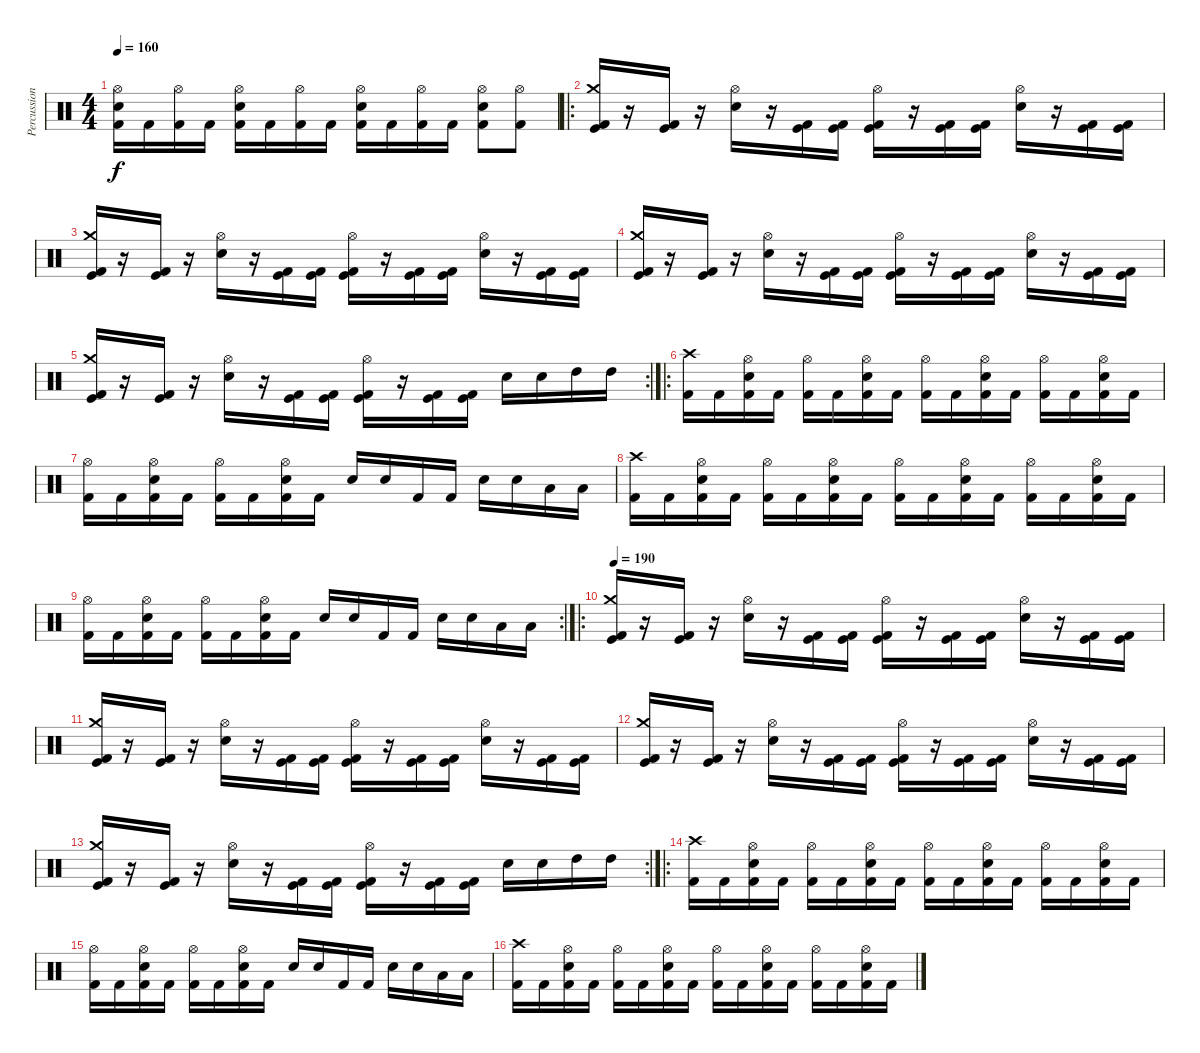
\track ("Percussion" "Percussion") {instrument percussion}
\staff {score}
\articulation defaults
\ts (4 4)
\tempo 160
\clef neutral
\ks c
("Hi-Hat (open)" "Snare (hit) 2" "Kick (hit) 2").16{dy f} "Kick (hit) 2".16 ("Hi-Hat (open)" "Kick (hit) 2").16 "Kick (hit) 2".16 ("Hi-Hat (open)" "Snare (hit) 2" "Kick (hit) 2").16 "Kick (hit) 2".16 ("Hi-Hat (open)" "Kick (hit) 2").16 "Kick (hit) 2".16 ("Hi-Hat (open)" "Snare (hit) 2" "Kick (hit) 2").16 "Kick (hit) 2".16 ("Hi-Hat (open)" "Kick (hit) 2").16 "Kick (hit) 2".16 ("Hi-Hat (open)" "Snare (hit) 2" "Kick (hit) 2").8 ("Hi-Hat (open)" "Kick (hit) 2").8 |
\ro
("Crash medium (hit)" "Kick (hit)" "Kick (hit) 2").16 r.16 ("Kick (hit)" "Kick (hit) 2").16 r.16 ("Hi-Hat (open)" "Electric Snare (hit)").16 r.16 ("Kick (hit)" "Kick (hit) 2").16 ("Kick (hit)" "Kick (hit) 2").16 ("Hi-Hat (open)" "Kick (hit)" "Kick (hit) 2").16 r.16 ("Kick (hit)" "Kick (hit) 2").16 ("Kick (hit)" "Kick (hit) 2").16 ("Hi-Hat (open)" "Electric Snare (hit)").16 r.16 ("Kick (hit)" "Kick (hit) 2").16 ("Kick (hit)" "Kick (hit) 2").16 |
("Crash medium (hit)" "Kick (hit)" "Kick (hit) 2").16 r.16 ("Kick (hit)" "Kick (hit) 2").16 r.16 ("Hi-Hat (open)" "Electric Snare (hit)").16 r.16 ("Kick (hit)" "Kick (hit) 2").16 ("Kick (hit)" "Kick (hit) 2").16 ("Hi-Hat (open)" "Kick (hit)" "Kick (hit) 2").16 r.16 ("Kick (hit)" "Kick (hit) 2").16 ("Kick (hit)" "Kick (hit) 2").16 ("Hi-Hat (open)" "Electric Snare (hit)").16 r.16 ("Kick (hit)" "Kick (hit) 2").16 ("Kick (hit)" "Kick (hit) 2").16 |
("Crash medium (hit)" "Kick (hit)" "Kick (hit) 2").16 r.16 ("Kick (hit)" "Kick (hit) 2").16 r.16 ("Hi-Hat (open)" "Electric Snare (hit)").16 r.16 ("Kick (hit)" "Kick (hit) 2").16 ("Kick (hit)" "Kick (hit) 2").16 ("Hi-Hat (open)" "Kick (hit)" "Kick (hit) 2").16 r.16 ("Kick (hit)" "Kick (hit) 2").16 ("Kick (hit)" "Kick (hit) 2").16 ("Hi-Hat (open)" "Electric Snare (hit)").16 r.16 ("Kick (hit)" "Kick (hit) 2").16 ("Kick (hit)" "Kick (hit) 2").16 |
\rc 2
("Crash medium (hit)" "Kick (hit)" "Kick (hit) 2").16 r.16 ("Kick (hit)" "Kick (hit) 2").16 r.16 ("Hi-Hat (open)" "Electric Snare (hit)").16 r.16 ("Kick (hit)" "Kick (hit) 2").16 ("Kick (hit)" "Kick (hit) 2").16 ("Hi-Hat (open)" "Kick (hit)" "Kick (hit) 2").16 r.16 ("Kick (hit)" "Kick (hit) 2").16 ("Kick (hit)" "Kick (hit) 2").16 "Snare (hit) 2".16 "Snare (hit) 2".16 "High Tom (hit)".16 "High Tom (hit)".16 |
\ro
("Crash high (hit)" "Kick (hit) 2").16 "Kick (hit) 2".16 ("Hi-Hat (open)" "Snare (hit) 2" "Kick (hit) 2").16 "Kick (hit) 2".16 ("Hi-Hat (open)" "Kick (hit) 2").16 "Kick (hit) 2".16 ("Hi-Hat (open)" "Snare (hit) 2" "Kick (hit) 2").16 "Kick (hit) 2".16 ("Hi-Hat (open)" "Kick (hit) 2").16 "Kick (hit) 2".16 ("Hi-Hat (open)" "Snare (hit) 2" "Kick (hit) 2").16 "Kick (hit) 2".16 ("Hi-Hat (open)" "Kick (hit) 2").16 "Kick (hit) 2".16 ("Hi-Hat (open)" "Snare (hit) 2" "Kick (hit) 2").16 "Kick (hit) 2".16 |
("Hi-Hat (open)" "Kick (hit) 2").16 "Kick (hit) 2".16 ("Hi-Hat (open)" "Snare (hit) 2" "Kick (hit) 2").16 "Kick (hit) 2".16 ("Hi-Hat (open)" "Kick (hit) 2").16 "Kick (hit) 2".16 ("Hi-Hat (open)" "Snare (hit) 2" "Kick (hit) 2").16 "Kick (hit) 2".16 "Snare (hit) 2".16 "Snare (hit) 2".16 "Kick (hit) 2".16 "Kick (hit) 2".16 "Snare (hit) 2".16 "Snare (hit) 2".16 "Low Tom (hit)".16 "Low Tom (hit)".16 |
("Crash high (hit)" "Kick (hit) 2").16 "Kick (hit) 2".16 ("Hi-Hat (open)" "Snare (hit) 2" "Kick (hit) 2").16 "Kick (hit) 2".16 ("Hi-Hat (open)" "Kick (hit) 2").16 "Kick (hit) 2".16 ("Hi-Hat (open)" "Snare (hit) 2" "Kick (hit) 2").16 "Kick (hit) 2".16 ("Hi-Hat (open)" "Kick (hit) 2").16 "Kick (hit) 2".16 ("Hi-Hat (open)" "Snare (hit) 2" "Kick (hit) 2").16 "Kick (hit) 2".16 ("Hi-Hat (open)" "Kick (hit) 2").16 "Kick (hit) 2".16 ("Hi-Hat (open)" "Snare (hit) 2" "Kick (hit) 2").16 "Kick (hit) 2".16 |
\rc 2
("Hi-Hat (open)" "Kick (hit) 2").16 "Kick (hit) 2".16 ("Hi-Hat (open)" "Snare (hit) 2" "Kick (hit) 2").16 "Kick (hit) 2".16 ("Hi-Hat (open)" "Kick (hit) 2").16 "Kick (hit) 2".16 ("Hi-Hat (open)" "Snare (hit) 2" "Kick (hit) 2").16 "Kick (hit) 2".16 "Snare (hit) 2".16 "Snare (hit) 2".16 "Kick (hit) 2".16 "Kick (hit) 2".16 "Snare (hit) 2".16 "Snare (hit) 2".16 "Low Tom (hit)".16 "Low Tom (hit)".16 |
\ro
\tempo 190
("Crash medium (hit)" "Kick (hit)" "Kick (hit) 2").16 r.16 ("Kick (hit)" "Kick (hit) 2").16 r.16 ("Hi-Hat (open)" "Electric Snare (hit)").16 r.16 ("Kick (hit)" "Kick (hit) 2").16 ("Kick (hit)" "Kick (hit) 2").16 ("Hi-Hat (open)" "Kick (hit)" "Kick (hit) 2").16 r.16 ("Kick (hit)" "Kick (hit) 2").16 ("Kick (hit)" "Kick (hit) 2").16 ("Hi-Hat (open)" "Electric Snare (hit)").16 r.16 ("Kick (hit)" "Kick (hit) 2").16 ("Kick (hit)" "Kick (hit) 2").16 |
("Crash medium (hit)" "Kick (hit)" "Kick (hit) 2").16 r.16 ("Kick (hit)" "Kick (hit) 2").16 r.16 ("Hi-Hat (open)" "Electric Snare (hit)").16 r.16 ("Kick (hit)" "Kick (hit) 2").16 ("Kick (hit)" "Kick (hit) 2").16 ("Hi-Hat (open)" "Kick (hit)" "Kick (hit) 2").16 r.16 ("Kick (hit)" "Kick (hit) 2").16 ("Kick (hit)" "Kick (hit) 2").16 ("Hi-Hat (open)" "Electric Snare (hit)").16 r.16 ("Kick (hit)" "Kick (hit) 2").16 ("Kick (hit)" "Kick (hit) 2").16 |
("Crash medium (hit)" "Kick (hit)" "Kick (hit) 2").16 r.16 ("Kick (hit)" "Kick (hit) 2").16 r.16 ("Hi-Hat (open)" "Electric Snare (hit)").16 r.16 ("Kick (hit)" "Kick (hit) 2").16 ("Kick (hit)" "Kick (hit) 2").16 ("Hi-Hat (open)" "Kick (hit)" "Kick (hit) 2").16 r.16 ("Kick (hit)" "Kick (hit) 2").16 ("Kick (hit)" "Kick (hit) 2").16 ("Hi-Hat (open)" "Electric Snare (hit)").16 r.16 ("Kick (hit)" "Kick (hit) 2").16 ("Kick (hit)" "Kick (hit) 2").16 |
\rc 2
("Crash medium (hit)" "Kick (hit)" "Kick (hit) 2").16 r.16 ("Kick (hit)" "Kick (hit) 2").16 r.16 ("Hi-Hat (open)" "Electric Snare (hit)").16 r.16 ("Kick (hit)" "Kick (hit) 2").16 ("Kick (hit)" "Kick (hit) 2").16 ("Hi-Hat (open)" "Kick (hit)" "Kick (hit) 2").16 r.16 ("Kick (hit)" "Kick (hit) 2").16 ("Kick (hit)" "Kick (hit) 2").16 "Snare (hit) 2".16 "Snare (hit) 2".16 "High Tom (hit)".16 "High Tom (hit)".16 |
\ro
("Crash high (hit)" "Kick (hit) 2").16 "Kick (hit) 2".16 ("Hi-Hat (open)" "Snare (hit) 2" "Kick (hit) 2").16 "Kick (hit) 2".16 ("Hi-Hat (open)" "Kick (hit) 2").16 "Kick (hit) 2".16 ("Hi-Hat (open)" "Snare (hit) 2" "Kick (hit) 2").16 "Kick (hit) 2".16 ("Hi-Hat (open)" "Kick (hit) 2").16 "Kick (hit) 2".16 ("Hi-Hat (open)" "Snare (hit) 2" "Kick (hit) 2").16 "Kick (hit) 2".16 ("Hi-Hat (open)" "Kick (hit) 2").16 "Kick (hit) 2".16 ("Hi-Hat (open)" "Snare (hit) 2" "Kick (hit) 2").16 "Kick (hit) 2".16 |
("Hi-Hat (open)" "Kick (hit) 2").16 "Kick (hit) 2".16 ("Hi-Hat (open)" "Snare (hit) 2" "Kick (hit) 2").16 "Kick (hit) 2".16 ("Hi-Hat (open)" "Kick (hit) 2").16 "Kick (hit) 2".16 ("Hi-Hat (open)" "Snare (hit) 2" "Kick (hit) 2").16 "Kick (hit) 2".16 "Snare (hit) 2".16 "Snare (hit) 2".16 "Kick (hit) 2".16 "Kick (hit) 2".16 "Snare (hit) 2".16 "Snare (hit) 2".16 "Low Tom (hit)".16 "Low Tom (hit)".16 |
("Crash high (hit)" "Kick (hit) 2").16 "Kick (hit) 2".16 ("Hi-Hat (open)" "Snare (hit) 2" "Kick (hit) 2").16 "Kick (hit) 2".16 ("Hi-Hat (open)" "Kick (hit) 2").16 "Kick (hit) 2".16 ("Hi-Hat (open)" "Snare (hit) 2" "Kick (hit) 2").16 "Kick (hit) 2".16 ("Hi-Hat (open)" "Kick (hit) 2").16 "Kick (hit) 2".16 ("Hi-Hat (open)" "Snare (hit) 2" "Kick (hit) 2").16 "Kick (hit) 2".16 ("Hi-Hat (open)" "Kick (hit) 2").16 "Kick (hit) 2".16 ("Hi-Hat (open)" "Snare (hit) 2" "Kick (hit) 2").16 "Kick (hit) 2".16
